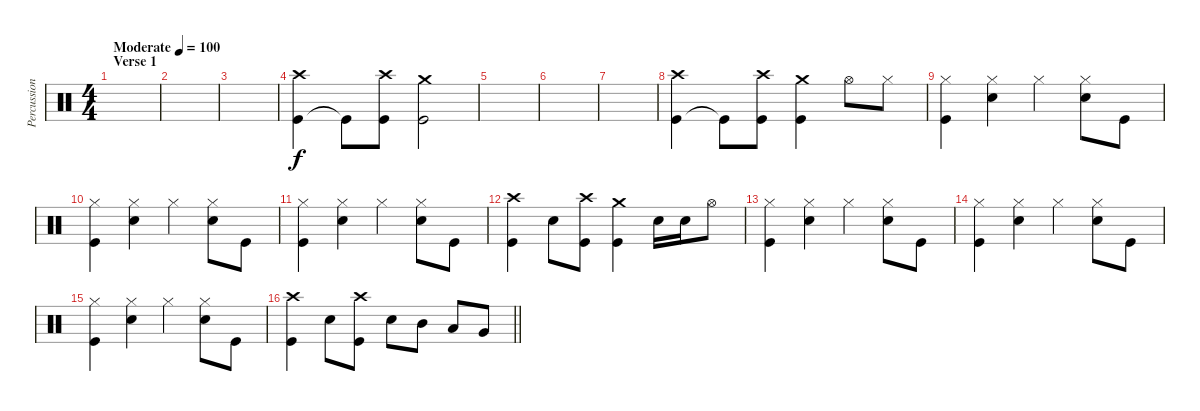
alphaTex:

\track ("Percussion" "Percussion") {instrument percussion}
\staff {score}
\articulation defaults
\ts (4 4)
\section ("" "Verse 1")
\tempo (100 "Moderate")
\clef neutral
\ks c
|
|
|
("Kick (hit)" "Crash high (hit)").4 "Kick (hit)"{t}.8 ("Kick (hit)" "Crash high (hit)").8 ("Kick (hit)" "Crash medium (hit)").2 |
|
|
|
("Kick (hit)" "Crash high (hit)").4 "Kick (hit)"{t}.8 ("Kick (hit)" "Crash high (hit)").8 ("Kick (hit)" "Crash medium (hit)").4 "Hi-Hat (open)".8 "Hi-Hat (closed)".8 |
("Hi-Hat (closed)" "Kick (hit)").4 ("Hi-Hat (closed)" "Snare (hit) 2").4 "Hi-Hat (closed)".4 ("Hi-Hat (closed)" "Snare (hit) 2").8 "Kick (hit)".8 |
("Hi-Hat (closed)" "Kick (hit)").4 ("Hi-Hat (closed)" "Snare (hit) 2").4 "Hi-Hat (closed)".4 ("Hi-Hat (closed)" "Snare (hit) 2").8 "Kick (hit)".8 |
("Hi-Hat (closed)" "Kick (hit)").4 ("Hi-Hat (closed)" "Snare (hit) 2").4 "Hi-Hat (closed)".4 ("Hi-Hat (closed)" "Snare (hit) 2").8 "Kick (hit)".8 |
("Kick (hit)" "Crash high (hit)").4 "Snare (hit) 2".8 ("Kick (hit)" "Crash high (hit)").8 ("Kick (hit)" "Crash medium (hit)").4 "Snare (hit) 2".16 "Snare (hit) 2".16 "Hi-Hat (open)".8 |
("Hi-Hat (closed)" "Kick (hit)").4 ("Hi-Hat (closed)" "Snare (hit) 2").4 "Hi-Hat (closed)".4 ("Hi-Hat (closed)" "Snare (hit) 2").8 "Kick (hit)".8 |
("Hi-Hat (closed)" "Kick (hit)").4 ("Hi-Hat (closed)" "Snare (hit) 2").4 "Hi-Hat (closed)".4 ("Hi-Hat (closed)" "Snare (hit) 2").8 "Kick (hit)".8 |
("Hi-Hat (closed)" "Kick (hit)").4 ("Hi-Hat (closed)" "Snare (hit) 2").4 "Hi-Hat (closed)".4 ("Hi-Hat (closed)" "Snare (hit) 2").8 "Kick (hit)".8 |
\barLineRight lightlight
("Kick (hit)" "Crash high (hit)").4 "Snare (hit) 2".8 ("Kick (hit)" "Crash high (hit)").8 "Snare (hit) 2".8 "Mid Tom (hit)".8 "Low Tom (hit)".8 "Very Low Tom (hit)".8
